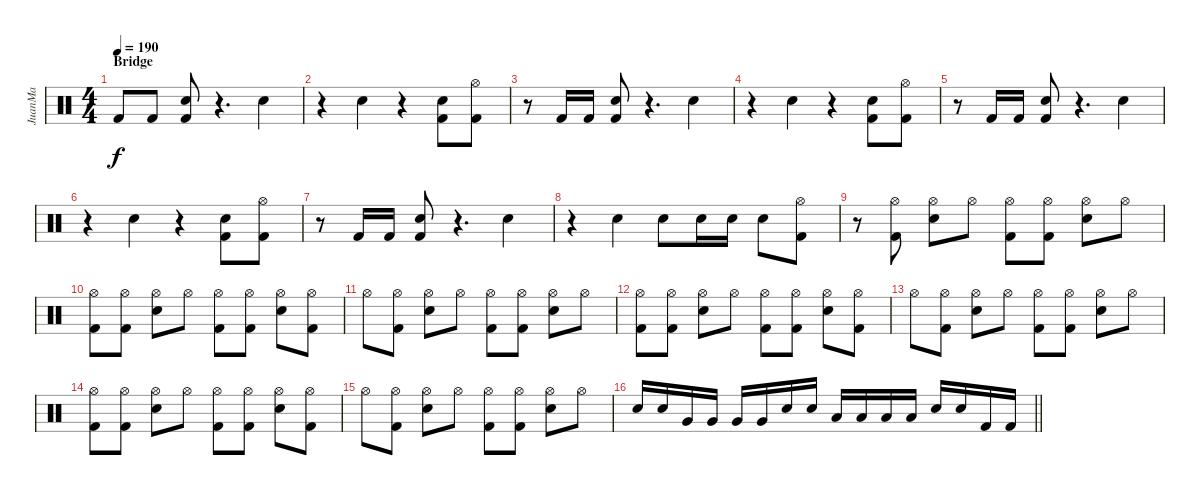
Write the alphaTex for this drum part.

\track ("JuanMa" "JuanMa") {instrument percussion}
\staff {score}
\articulation defaults
\ts (4 4)
\section ("" "Bridge")
\tempo 190
\clef neutral
\ks c "Kick (hit) 2".8{dy f} "Kick (hit) 2".8
("Electric Snare (hit)" "Kick (hit) 2").8 r.4{d} "Electric Snare (hit)".4 |
r.4 "Electric Snare (hit)".4 r.4 ("Electric Snare (hit)" "Kick (hit) 2").8 ("Hi-Hat (open)" "Kick (hit) 2").8 |
r.8 "Kick (hit) 2".16 "Kick (hit) 2".16 ("Electric Snare (hit)" "Kick (hit) 2").8 r.4{d} "Electric Snare (hit)".4 |
r.4 "Electric Snare (hit)".4 r.4 ("Electric Snare (hit)" "Kick (hit) 2").8 ("Hi-Hat (open)" "Kick (hit) 2").8 |
r.8 "Kick (hit) 2".16 "Kick (hit) 2".16 ("Electric Snare (hit)" "Kick (hit) 2").8 r.4{d} "Electric Snare (hit)".4 |
r.4 "Electric Snare (hit)".4 r.4 ("Electric Snare (hit)" "Kick (hit) 2").8 ("Hi-Hat (open)" "Kick (hit) 2").8 |
r.8 "Kick (hit) 2".16 "Kick (hit) 2".16 ("Electric Snare (hit)" "Kick (hit) 2").8 r.4{d} "Electric Snare (hit)".4 |
r.4 "Electric Snare (hit)".4 "Electric Snare (hit)".8 "Electric Snare (hit)".16 "Electric Snare (hit)".16 "Electric Snare (hit)".8 ("Hi-Hat (open)" "Kick (hit) 2").8 |
r.8 ("Hi-Hat (open)" "Kick (hit) 2").8 ("Hi-Hat (open)" "Electric Snare (hit)").8 "Hi-Hat (open)".8 ("Hi-Hat (open)" "Kick (hit) 2").8 ("Hi-Hat (open)" "Kick (hit) 2").8 ("Hi-Hat (open)" "Electric Snare (hit)").8 "Hi-Hat (open)".8 |
("Hi-Hat (open)" "Kick (hit) 2").8 ("Hi-Hat (open)" "Kick (hit) 2").8 ("Hi-Hat (open)" "Electric Snare (hit)").8 "Hi-Hat (open)".8 ("Hi-Hat (open)" "Kick (hit) 2").8 ("Hi-Hat (open)" "Kick (hit) 2").8 ("Hi-Hat (open)" "Electric Snare (hit)").8 ("Hi-Hat (open)" "Kick (hit) 2").8 |
"Hi-Hat (open)".8 ("Hi-Hat (open)" "Kick (hit) 2").8 ("Hi-Hat (open)" "Electric Snare (hit)").8 "Hi-Hat (open)".8 ("Hi-Hat (open)" "Kick (hit) 2").8 ("Hi-Hat (open)" "Kick (hit) 2").8 ("Hi-Hat (open)" "Electric Snare (hit)").8 "Hi-Hat (open)".8 |
("Hi-Hat (open)" "Kick (hit) 2").8 ("Hi-Hat (open)" "Kick (hit) 2").8 ("Hi-Hat (open)" "Electric Snare (hit)").8 "Hi-Hat (open)".8 ("Hi-Hat (open)" "Kick (hit) 2").8 ("Hi-Hat (open)" "Kick (hit) 2").8 ("Hi-Hat (open)" "Electric Snare (hit)").8 ("Hi-Hat (open)" "Kick (hit) 2").8 |
"Hi-Hat (open)".8 ("Hi-Hat (open)" "Kick (hit) 2").8 ("Hi-Hat (open)" "Electric Snare (hit)").8 "Hi-Hat (open)".8 ("Hi-Hat (open)" "Kick (hit) 2").8 ("Hi-Hat (open)" "Kick (hit) 2").8 ("Hi-Hat (open)" "Electric Snare (hit)").8 "Hi-Hat (open)".8 |
("Hi-Hat (open)" "Kick (hit) 2").8 ("Hi-Hat (open)" "Kick (hit) 2").8 ("Hi-Hat (open)" "Electric Snare (hit)").8 "Hi-Hat (open)".8 ("Hi-Hat (open)" "Kick (hit) 2").8 ("Hi-Hat (open)" "Kick (hit) 2").8 ("Hi-Hat (open)" "Electric Snare (hit)").8 ("Hi-Hat (open)" "Kick (hit) 2").8 |
"Hi-Hat (open)".8 ("Hi-Hat (open)" "Kick (hit) 2").8 ("Hi-Hat (open)" "Electric Snare (hit)").8 "Hi-Hat (open)".8 ("Hi-Hat (open)" "Kick (hit) 2").8 ("Hi-Hat (open)" "Kick (hit) 2").8 ("Hi-Hat (open)" "Electric Snare (hit)").8 "Hi-Hat (open)".8 |
\barLineRight lightlight "Electric Snare (hit)".16 "Electric Snare (hit)".16 "Very Low Tom (hit)".16 "Very Low Tom (hit)".16 "Very Low Tom (hit)".16 "Very Low Tom (hit)".16 "Electric Snare (hit)".16 "Electric Snare (hit)".16 "Low Floor Tom (hit)".16 "Low Floor Tom (hit)".16 "Low Floor Tom (hit)".16 "Low Floor Tom (hit)".16 "Electric Snare (hit)".16 "Electric Snare (hit)".16 "Kick (hit) 2".16 "Kick (hit) 2".16
